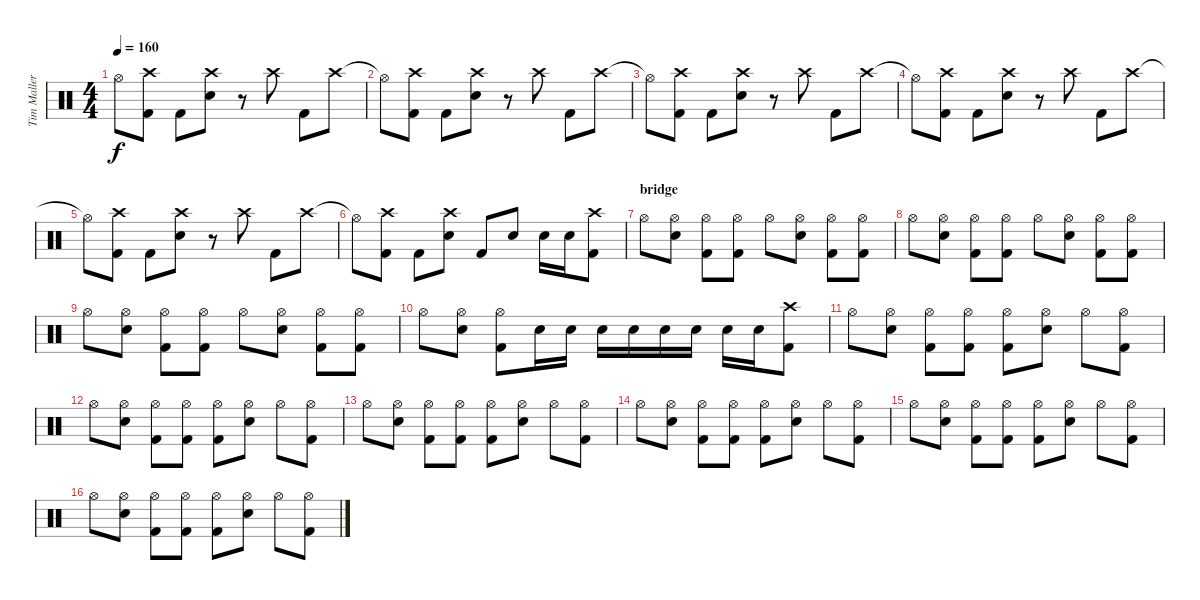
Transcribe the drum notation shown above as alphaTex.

\track ("Tim Mallere" "Tim Maller") {instrument percussion}
\staff {score}
\articulation defaults
\ts (4 4)
\tempo 160
\clef neutral
\ks c "Hi-Hat (open)"{t}.8{dy f}
("Crash high (hit)" "Kick (hit) 2").8 "Kick (hit) 2".8 ("Crash high (hit)" "Electric Snare (hit)").8 r.8 "Crash high (hit)".8 "Kick (hit) 2".8 "Crash high (hit)".8 |
"Hi-Hat (open)"{t}.8 ("Crash high (hit)" "Kick (hit) 2").8 "Kick (hit) 2".8 ("Crash high (hit)" "Electric Snare (hit)").8 r.8 "Crash high (hit)".8 "Kick (hit) 2".8 "Crash high (hit)".8 |
"Hi-Hat (open)"{t}.8 ("Crash high (hit)" "Kick (hit) 2").8 "Kick (hit) 2".8 ("Crash high (hit)" "Electric Snare (hit)").8 r.8 "Crash high (hit)".8 "Kick (hit) 2".8 "Crash high (hit)".8 |
"Hi-Hat (open)"{t}.8 ("Crash high (hit)" "Kick (hit) 2").8 "Kick (hit) 2".8 ("Crash high (hit)" "Electric Snare (hit)").8 r.8 "Crash high (hit)".8 "Kick (hit) 2".8 "Crash high (hit)".8 |
"Hi-Hat (open)"{t}.8 ("Crash high (hit)" "Kick (hit) 2").8 "Kick (hit) 2".8 ("Crash high (hit)" "Electric Snare (hit)").8 r.8 "Crash high (hit)".8 "Kick (hit) 2".8 "Crash high (hit)".8 |
"Hi-Hat (open)"{t}.8 ("Crash high (hit)" "Kick (hit) 2").8 "Kick (hit) 2".8 ("Crash high (hit)" "Electric Snare (hit)").8 "Kick (hit) 2".8 "Electric Snare (hit)".8 "Electric Snare (hit)".16 "Electric Snare (hit)".16 ("Crash high (hit)" "Kick (hit) 2").8 |
\section ("" "bridge")
"Hi-Hat (open)".8 ("Hi-Hat (open)" "Electric Snare (hit)").8 ("Hi-Hat (open)" "Kick (hit) 2").8 ("Hi-Hat (open)" "Kick (hit) 2").8 "Hi-Hat (open)".8 ("Hi-Hat (open)" "Electric Snare (hit)").8 ("Hi-Hat (open)" "Kick (hit) 2").8 ("Hi-Hat (open)" "Kick (hit) 2").8 |
"Hi-Hat (open)".8 ("Hi-Hat (open)" "Electric Snare (hit)").8 ("Hi-Hat (open)" "Kick (hit) 2").8 ("Hi-Hat (open)" "Kick (hit) 2").8 "Hi-Hat (open)".8 ("Hi-Hat (open)" "Electric Snare (hit)").8 ("Hi-Hat (open)" "Kick (hit) 2").8 ("Hi-Hat (open)" "Kick (hit) 2").8 |
"Hi-Hat (open)".8 ("Hi-Hat (open)" "Electric Snare (hit)").8 ("Hi-Hat (open)" "Kick (hit) 2").8 ("Hi-Hat (open)" "Kick (hit) 2").8 "Hi-Hat (open)".8 ("Hi-Hat (open)" "Electric Snare (hit)").8 ("Hi-Hat (open)" "Kick (hit) 2").8 ("Hi-Hat (open)" "Kick (hit) 2").8 |
"Hi-Hat (open)".8 ("Hi-Hat (open)" "Electric Snare (hit)").8 ("Hi-Hat (open)" "Kick (hit) 2").8 "Electric Snare (hit)".16 "Electric Snare (hit)".16 "Electric Snare (hit)".16 "Electric Snare (hit)".16 "Electric Snare (hit)".16 "Electric Snare (hit)".16 "Electric Snare (hit)".16 "Electric Snare (hit)".16 ("Crash high (hit)" "Kick (hit) 2").8 |
"Hi-Hat (open)".8 ("Hi-Hat (open)" "Electric Snare (hit)").8 ("Hi-Hat (open)" "Kick (hit) 2").8 ("Hi-Hat (open)" "Kick (hit) 2").8 ("Hi-Hat (open)" "Kick (hit) 2").8 ("Hi-Hat (open)" "Electric Snare (hit)").8 "Hi-Hat (open)".8 ("Hi-Hat (open)" "Kick (hit) 2").8 |
"Hi-Hat (open)".8 ("Hi-Hat (open)" "Electric Snare (hit)").8 ("Hi-Hat (open)" "Kick (hit) 2").8 ("Hi-Hat (open)" "Kick (hit) 2").8 ("Hi-Hat (open)" "Kick (hit) 2").8 ("Hi-Hat (open)" "Electric Snare (hit)").8 "Hi-Hat (open)".8 ("Hi-Hat (open)" "Kick (hit) 2").8 |
"Hi-Hat (open)".8 ("Hi-Hat (open)" "Electric Snare (hit)").8 ("Hi-Hat (open)" "Kick (hit) 2").8 ("Hi-Hat (open)" "Kick (hit) 2").8 ("Hi-Hat (open)" "Kick (hit) 2").8 ("Hi-Hat (open)" "Electric Snare (hit)").8 "Hi-Hat (open)".8 ("Hi-Hat (open)" "Kick (hit) 2").8 |
"Hi-Hat (open)".8 ("Hi-Hat (open)" "Electric Snare (hit)").8 ("Hi-Hat (open)" "Kick (hit) 2").8 ("Hi-Hat (open)" "Kick (hit) 2").8 ("Hi-Hat (open)" "Kick (hit) 2").8 ("Hi-Hat (open)" "Electric Snare (hit)").8 "Hi-Hat (open)".8 ("Hi-Hat (open)" "Kick (hit) 2").8 |
"Hi-Hat (open)".8 ("Hi-Hat (open)" "Electric Snare (hit)").8 ("Hi-Hat (open)" "Kick (hit) 2").8 ("Hi-Hat (open)" "Kick (hit) 2").8 ("Hi-Hat (open)" "Kick (hit) 2").8 ("Hi-Hat (open)" "Electric Snare (hit)").8 "Hi-Hat (open)".8 ("Hi-Hat (open)" "Kick (hit) 2").8 |
"Hi-Hat (open)".8 ("Hi-Hat (open)" "Electric Snare (hit)").8 ("Hi-Hat (open)" "Kick (hit) 2").8 ("Hi-Hat (open)" "Kick (hit) 2").8 ("Hi-Hat (open)" "Kick (hit) 2").8 ("Hi-Hat (open)" "Electric Snare (hit)").8 "Hi-Hat (open)".8 ("Hi-Hat (open)" "Kick (hit) 2").8
